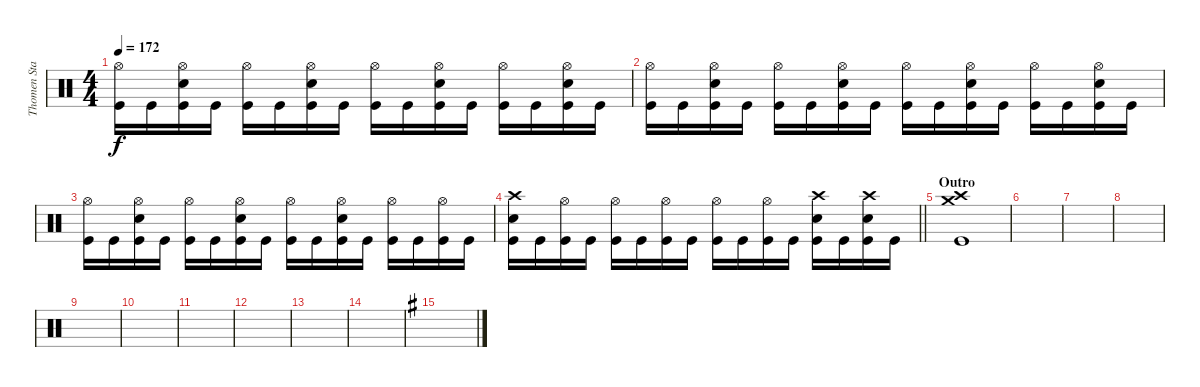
\track ("Thomen Stauch" "Thomen Sta") {instrument percussion}
\staff {score}
\articulation defaults
\ts (4 4)
\tempo 172
\clef neutral
\ks c
("Hi-Hat (open)" "Kick (hit)").16{dy f} "Kick (hit)".16 ("Hi-Hat (open)" "Snare (hit) 2" "Kick (hit)").16 "Kick (hit)".16 ("Hi-Hat (open)" "Kick (hit)").16 "Kick (hit)".16 ("Hi-Hat (open)" "Snare (hit) 2" "Kick (hit)").16 "Kick (hit)".16 ("Hi-Hat (open)" "Kick (hit)").16 "Kick (hit)".16 ("Hi-Hat (open)" "Snare (hit) 2" "Kick (hit)").16 "Kick (hit)".16 ("Hi-Hat (open)" "Kick (hit)").16 "Kick (hit)".16 ("Hi-Hat (open)" "Snare (hit) 2" "Kick (hit)").16 "Kick (hit)".16 |
("Hi-Hat (open)" "Kick (hit)").16 "Kick (hit)".16 ("Hi-Hat (open)" "Snare (hit) 2" "Kick (hit)").16 "Kick (hit)".16 ("Hi-Hat (open)" "Kick (hit)").16 "Kick (hit)".16 ("Hi-Hat (open)" "Snare (hit) 2" "Kick (hit)").16 "Kick (hit)".16 ("Hi-Hat (open)" "Kick (hit)").16 "Kick (hit)".16 ("Hi-Hat (open)" "Snare (hit) 2" "Kick (hit)").16 "Kick (hit)".16 ("Hi-Hat (open)" "Kick (hit)").16 "Kick (hit)".16 ("Hi-Hat (open)" "Snare (hit) 2" "Kick (hit)").16 "Kick (hit)".16 |
("Hi-Hat (open)" "Kick (hit)").16 "Kick (hit)".16 ("Hi-Hat (open)" "Snare (hit) 2" "Kick (hit)").16 "Kick (hit)".16 ("Hi-Hat (open)" "Kick (hit)").16 "Kick (hit)".16 ("Hi-Hat (open)" "Snare (hit) 2" "Kick (hit)").16 "Kick (hit)".16 ("Hi-Hat (open)" "Kick (hit)").16 "Kick (hit)".16 ("Hi-Hat (open)" "Snare (hit) 2" "Kick (hit)").16 "Kick (hit)".16 ("Hi-Hat (open)" "Kick (hit)").16 "Kick (hit)".16 ("Hi-Hat (open)" "Kick (hit)").16 "Kick (hit)".16 |
\barLineRight lightlight
("Crash high (hit)" "Snare (hit) 2" "Kick (hit)").16 "Kick (hit)".16 ("Hi-Hat (open)" "Kick (hit)").16 "Kick (hit)".16 ("Hi-Hat (open)" "Kick (hit)").16 "Kick (hit)".16 ("Hi-Hat (open)" "Kick (hit)").16 "Kick (hit)".16 ("Hi-Hat (open)" "Kick (hit)").16 "Kick (hit)".16 ("Hi-Hat (open)" "Kick (hit)").16 "Kick (hit)".16 ("Crash high (hit)" "Snare (hit) 2" "Kick (hit)").16 "Kick (hit)".16 ("Crash high (hit)" "Snare (hit) 2" "Kick (hit)").16 "Kick (hit)".16 |
\section ("" "Outro")
("Crash medium (hit)" "Crash high (hit)" "Kick (hit)").1 |
|
|
|
|
|
|
|
|
|
\ks g
